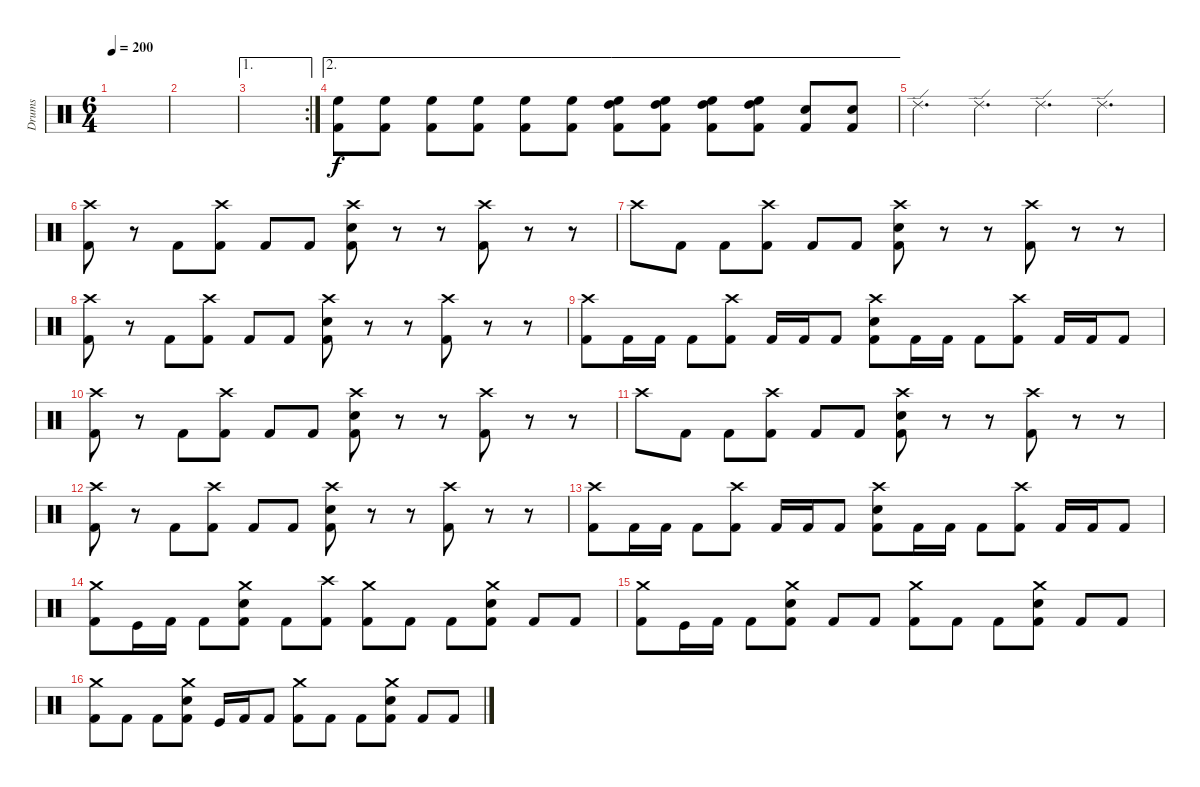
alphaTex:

\track ("Drums" "Drums") {mute instrument percussion}
\staff {score}
\articulation defaults
\ts (6 4)
\tempo 200
\clef neutral
\ks c
|
|
\ae 1
\rc 2
|
\ae 2
("High Floor Tom (hit)" "Kick (hit) 2").8 ("High Floor Tom (hit)" "Kick (hit) 2").8 ("High Floor Tom (hit)" "Kick (hit) 2").8 ("High Floor Tom (hit)" "Kick (hit) 2").8 ("High Floor Tom (hit)" "Kick (hit) 2").8 ("High Floor Tom (hit)" "Kick (hit) 2").8 ("High Tom (hit)" "High Floor Tom (hit)" "Kick (hit) 2").8 ("High Tom (hit)" "High Floor Tom (hit)" "Kick (hit) 2").8 ("High Tom (hit)" "High Floor Tom (hit)" "Kick (hit) 2").8 ("High Tom (hit)" "High Floor Tom (hit)" "Kick (hit) 2").8 ("Electric Snare (hit)" "Kick (hit) 2").8 ("Electric Snare (hit)" "Kick (hit) 2").8 |
"Ride (edge) 2".4{d} "Ride (edge) 2".4{d} "Ride (edge) 2".4{d} "Ride (edge) 2".4{d} |
("Crash high (hit)" "Kick (hit) 2").8 r.8 "Kick (hit) 2".8 ("Crash high (hit)" "Kick (hit) 2").8 "Kick (hit) 2".8 "Kick (hit) 2".8 ("Crash high (hit)" "Electric Snare (hit)" "Kick (hit) 2").8 r.8 r.8 ("Crash high (hit)" "Kick (hit) 2").8 r.8 r.8 |
"Crash high (hit)".8 "Kick (hit) 2".8 "Kick (hit) 2".8 ("Crash high (hit)" "Kick (hit) 2").8 "Kick (hit) 2".8 "Kick (hit) 2".8 ("Crash high (hit)" "Electric Snare (hit)" "Kick (hit) 2").8 r.8 r.8 ("Crash high (hit)" "Kick (hit) 2").8 r.8 r.8 |
("Crash high (hit)" "Kick (hit) 2").8 r.8 "Kick (hit) 2".8 ("Crash high (hit)" "Kick (hit) 2").8 "Kick (hit) 2".8 "Kick (hit) 2".8 ("Crash high (hit)" "Electric Snare (hit)" "Kick (hit) 2").8 r.8 r.8 ("Crash high (hit)" "Kick (hit) 2").8 r.8 r.8 |
("Crash high (hit)" "Kick (hit) 2").8 "Kick (hit) 2".16 "Kick (hit) 2".16 "Kick (hit) 2".8 ("Crash high (hit)" "Kick (hit) 2").8 "Kick (hit) 2".16 "Kick (hit) 2".16 "Kick (hit) 2".8 ("Crash high (hit)" "Electric Snare (hit)" "Kick (hit) 2").8 "Kick (hit) 2".16 "Kick (hit) 2".16 "Kick (hit) 2".8 ("Crash high (hit)" "Kick (hit) 2").8 "Kick (hit) 2".16 "Kick (hit) 2".16 "Kick (hit) 2".8 |
("Crash high (hit)" "Kick (hit) 2").8 r.8 "Kick (hit) 2".8 ("Crash high (hit)" "Kick (hit) 2").8 "Kick (hit) 2".8 "Kick (hit) 2".8 ("Crash high (hit)" "Electric Snare (hit)" "Kick (hit) 2").8 r.8 r.8 ("Crash high (hit)" "Kick (hit) 2").8 r.8 r.8 |
"Crash high (hit)".8 "Kick (hit) 2".8 "Kick (hit) 2".8 ("Crash high (hit)" "Kick (hit) 2").8 "Kick (hit) 2".8 "Kick (hit) 2".8 ("Crash high (hit)" "Electric Snare (hit)" "Kick (hit) 2").8 r.8 r.8 ("Crash high (hit)" "Kick (hit) 2").8 r.8 r.8 |
("Crash high (hit)" "Kick (hit) 2").8 r.8 "Kick (hit) 2".8 ("Crash high (hit)" "Kick (hit) 2").8 "Kick (hit) 2".8 "Kick (hit) 2".8 ("Crash high (hit)" "Electric Snare (hit)" "Kick (hit) 2").8 r.8 r.8 ("Crash high (hit)" "Kick (hit) 2").8 r.8 r.8 |
("Crash high (hit)" "Kick (hit) 2").8 "Kick (hit) 2".16 "Kick (hit) 2".16 "Kick (hit) 2".8 ("Crash high (hit)" "Kick (hit) 2").8 "Kick (hit) 2".16 "Kick (hit) 2".16 "Kick (hit) 2".8 ("Crash high (hit)" "Electric Snare (hit)" "Kick (hit) 2").8 "Kick (hit) 2".16 "Kick (hit) 2".16 "Kick (hit) 2".8 ("Crash high (hit)" "Kick (hit) 2").8 "Kick (hit) 2".16 "Kick (hit) 2".16 "Kick (hit) 2".8 |
("Crash medium (hit)" "Kick (hit) 2").8 "Kick (hit)".16 "Kick (hit) 2".16 "Kick (hit) 2".8 ("Crash medium (hit)" "Electric Snare (hit)" "Kick (hit) 2").8 "Kick (hit) 2".8 ("Crash high (hit)" "Kick (hit) 2").8 ("Crash medium (hit)" "Kick (hit) 2").8 "Kick (hit) 2".8 "Kick (hit) 2".8 ("Crash medium (hit)" "Electric Snare (hit)" "Kick (hit) 2").8 "Kick (hit) 2".8 "Kick (hit) 2".8 |
("Crash medium (hit)" "Kick (hit) 2").8 "Kick (hit)".16 "Kick (hit) 2".16 "Kick (hit) 2".8 ("Crash medium (hit)" "Electric Snare (hit)" "Kick (hit) 2").8 "Kick (hit) 2".8 "Kick (hit) 2".8 ("Crash medium (hit)" "Kick (hit) 2").8 "Kick (hit) 2".8 "Kick (hit) 2".8 ("Crash medium (hit)" "Electric Snare (hit)" "Kick (hit) 2").8 "Kick (hit) 2".8 "Kick (hit) 2".8 |
("Crash medium (hit)" "Kick (hit) 2").8 "Kick (hit) 2".8 "Kick (hit) 2".8 ("Crash medium (hit)" "Electric Snare (hit)" "Kick (hit) 2").8 "Kick (hit)".16 "Kick (hit) 2".16 "Kick (hit) 2".8 ("Crash medium (hit)" "Kick (hit) 2").8 "Kick (hit) 2".8 "Kick (hit) 2".8 ("Crash medium (hit)" "Electric Snare (hit)" "Kick (hit) 2").8 "Kick (hit) 2".8 "Kick (hit) 2".8
